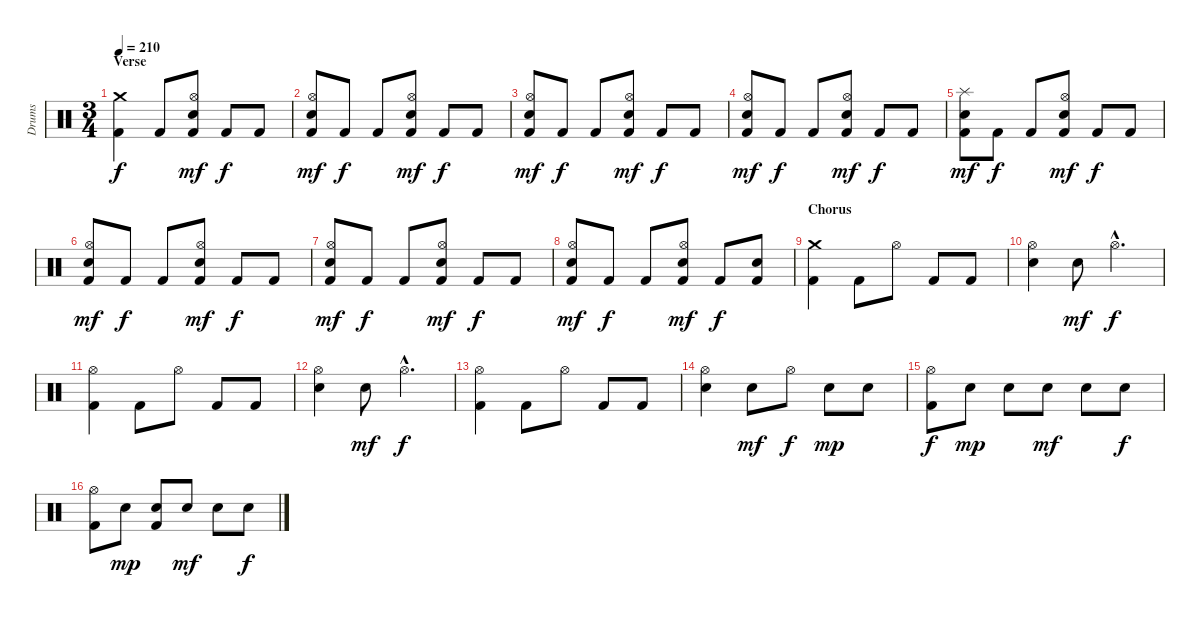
\track ("Drums" "Drums") {instrument percussion}
\staff {score}
\articulation defaults
\ts (3 4)
\section ("" "Verse")
\tempo 210
\clef neutral
\ks c
("Crash medium (hit)" "Kick (hit) 2").4{dy f} "Kick (hit) 2".8 ("Hi-Hat (open)" "Electric Snare (hit)" "Kick (hit) 2").8{dy mf} "Kick (hit) 2".8{dy f} "Kick (hit) 2".8 |
("Hi-Hat (open)" "Electric Snare (hit)" "Kick (hit) 2").8{dy mf} "Kick (hit) 2".8{dy f} "Kick (hit) 2".8 ("Hi-Hat (open)" "Electric Snare (hit)" "Kick (hit) 2").8{dy mf} "Kick (hit) 2".8{dy f} "Kick (hit) 2".8 |
("Hi-Hat (open)" "Electric Snare (hit)" "Kick (hit) 2").8{dy mf} "Kick (hit) 2".8{dy f} "Kick (hit) 2".8 ("Hi-Hat (open)" "Electric Snare (hit)" "Kick (hit) 2").8{dy mf} "Kick (hit) 2".8{dy f} "Kick (hit) 2".8 |
("Hi-Hat (open)" "Electric Snare (hit)" "Kick (hit) 2").8{dy mf} "Kick (hit) 2".8{dy f} "Kick (hit) 2".8 ("Hi-Hat (open)" "Electric Snare (hit)" "Kick (hit) 2").8{dy mf} "Kick (hit) 2".8{dy f} "Kick (hit) 2".8 |
("Splash (hit)" "Electric Snare (hit)" "Kick (hit) 2").8{dy mf} "Kick (hit) 2".8{dy f} "Kick (hit) 2".8 ("Hi-Hat (open)" "Electric Snare (hit)" "Kick (hit) 2").8{dy mf} "Kick (hit) 2".8{dy f} "Kick (hit) 2".8 |
("Hi-Hat (open)" "Electric Snare (hit)" "Kick (hit) 2").8{dy mf} "Kick (hit) 2".8{dy f} "Kick (hit) 2".8 ("Hi-Hat (open)" "Electric Snare (hit)" "Kick (hit) 2").8{dy mf} "Kick (hit) 2".8{dy f} "Kick (hit) 2".8 |
("Hi-Hat (open)" "Electric Snare (hit)" "Kick (hit) 2").8{dy mf} "Kick (hit) 2".8{dy f} "Kick (hit) 2".8 ("Hi-Hat (open)" "Electric Snare (hit)" "Kick (hit) 2").8{dy mf} "Kick (hit) 2".8{dy f} "Kick (hit) 2".8 |
("Hi-Hat (open)" "Electric Snare (hit)" "Kick (hit) 2").8{dy mf} "Kick (hit) 2".8{dy f} "Kick (hit) 2".8 ("Hi-Hat (open)" "Electric Snare (hit)" "Kick (hit) 2").8{dy mf} "Kick (hit) 2".8{dy f} ("Electric Snare (hit)" "Kick (hit) 2").8 |
\section ("" "Chorus")
("Crash medium (hit)" "Kick (hit) 2").4 "Kick (hit) 2".8 "Hi-Hat (open)".8 "Kick (hit) 2".8 "Kick (hit) 2".8 |
("Hi-Hat (open)" "Electric Snare (hit)").4 "Electric Snare (hit)".8{dy mf} "Hi-Hat (open)"{hac}.4{d dy f} |
("Hi-Hat (open)" "Kick (hit) 2").4 "Kick (hit) 2".8 "Hi-Hat (open)".8 "Kick (hit) 2".8 "Kick (hit) 2".8 |
("Hi-Hat (open)" "Electric Snare (hit)").4 "Electric Snare (hit)".8{dy mf} "Hi-Hat (open)"{hac}.4{d dy f} |
("Hi-Hat (open)" "Kick (hit) 2").4 "Kick (hit) 2".8 "Hi-Hat (open)".8 "Kick (hit) 2".8 "Kick (hit) 2".8 |
("Hi-Hat (open)" "Electric Snare (hit)").4 "Electric Snare (hit)".8{dy mf} "Hi-Hat (open)".8{dy f} "Electric Snare (hit)".8{dy mp} "Electric Snare (hit)".8 |
("Hi-Hat (open)" "Kick (hit) 2").8{dy f} "Electric Snare (hit)".8{dy mp} "Electric Snare (hit)".8 "Electric Snare (hit)".8{dy mf} "Electric Snare (hit)".8 "Electric Snare (hit)".8{dy f} |
("Hi-Hat (open)" "Kick (hit) 2").8 "Electric Snare (hit)".8{dy mp} ("Electric Snare (hit)" "Kick (hit) 2").8 "Electric Snare (hit)".8{dy mf} "Electric Snare (hit)".8 "Electric Snare (hit)".8{dy f}
